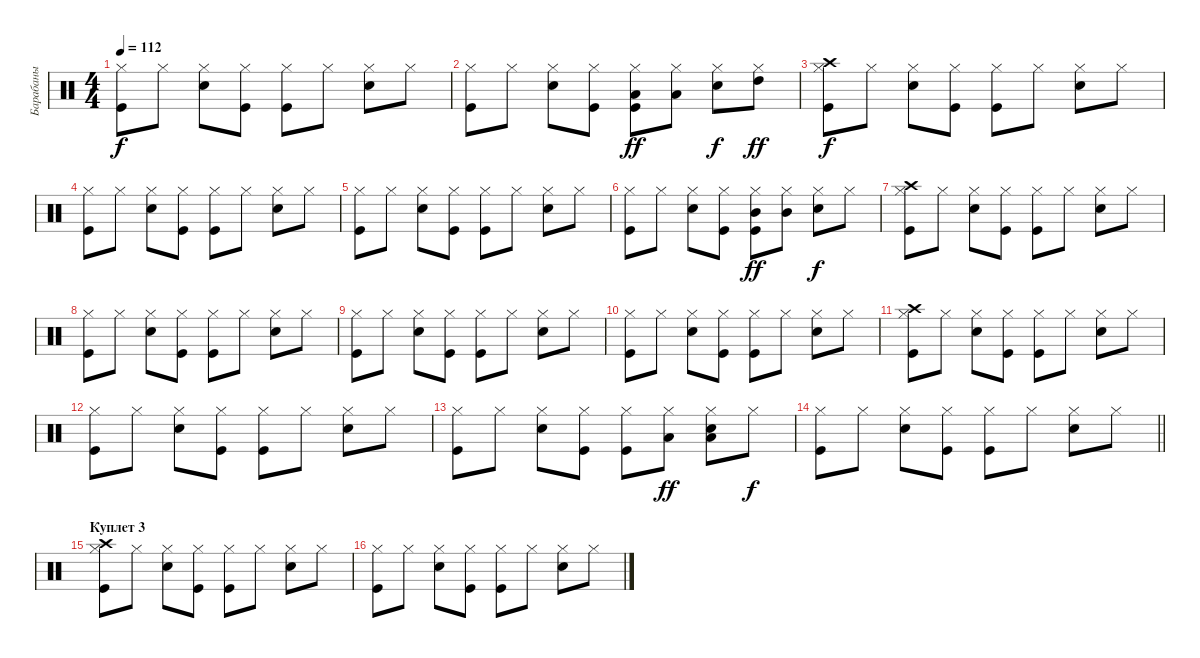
\track ("Барабаны" "Барабаны") {instrument percussion}
\staff {score}
\articulation defaults
\ts (4 4)
\tempo 112
\clef neutral
\ks c
("Kick (hit)" "Hi-Hat (closed)").8{dy f} "Hi-Hat (closed)".8 ("Snare (hit) 2" "Hi-Hat (closed)").8 ("Kick (hit)" "Hi-Hat (closed)").8 ("Kick (hit)" "Hi-Hat (closed)").8 "Hi-Hat (closed)".8 ("Snare (hit) 2" "Hi-Hat (closed)").8 "Hi-Hat (closed)".8 |
("Kick (hit)" "Hi-Hat (closed)").8 "Hi-Hat (closed)".8 ("Snare (hit) 2" "Hi-Hat (closed)").8 ("Kick (hit)" "Hi-Hat (closed)").8 ("Kick (hit)" "Hi-Hat (closed)" "Low Floor Tom (hit)").8{dy ff} ("Hi-Hat (closed)" "Low Floor Tom (hit)").8 ("Snare (hit) 2" "Hi-Hat (closed)").8{dy f} ("Hi-Hat (closed)" "High Tom (hit)").8{dy ff} |
("Kick (hit)" "Hi-Hat (closed)" "Crash high (hit)").8{dy f} "Hi-Hat (closed)".8 ("Snare (hit) 2" "Hi-Hat (closed)").8 ("Kick (hit)" "Hi-Hat (closed)").8 ("Kick (hit)" "Hi-Hat (closed)").8 "Hi-Hat (closed)".8 ("Snare (hit) 2" "Hi-Hat (closed)").8 "Hi-Hat (closed)".8 |
("Kick (hit)" "Hi-Hat (closed)").8 "Hi-Hat (closed)".8 ("Snare (hit) 2" "Hi-Hat (closed)").8 ("Kick (hit)" "Hi-Hat (closed)").8 ("Kick (hit)" "Hi-Hat (closed)").8 "Hi-Hat (closed)".8 ("Snare (hit) 2" "Hi-Hat (closed)").8 "Hi-Hat (closed)".8 |
("Kick (hit)" "Hi-Hat (closed)").8 "Hi-Hat (closed)".8 ("Snare (hit) 2" "Hi-Hat (closed)").8 ("Kick (hit)" "Hi-Hat (closed)").8 ("Kick (hit)" "Hi-Hat (closed)").8 "Hi-Hat (closed)".8 ("Snare (hit) 2" "Hi-Hat (closed)").8 "Hi-Hat (closed)".8 |
("Kick (hit)" "Hi-Hat (closed)").8 "Hi-Hat (closed)".8 ("Snare (hit) 2" "Hi-Hat (closed)").8 ("Kick (hit)" "Hi-Hat (closed)").8 ("Kick (hit)" "Hi-Hat (closed)" "Mid Tom (hit)").8{dy ff} ("Hi-Hat (closed)" "Mid Tom (hit)").8 ("Snare (hit) 2" "Hi-Hat (closed)").8{dy f} "Hi-Hat (closed)".8 |
("Kick (hit)" "Hi-Hat (closed)" "Crash high (hit)").8 "Hi-Hat (closed)".8 ("Snare (hit) 2" "Hi-Hat (closed)").8 ("Kick (hit)" "Hi-Hat (closed)").8 ("Kick (hit)" "Hi-Hat (closed)").8 "Hi-Hat (closed)".8 ("Snare (hit) 2" "Hi-Hat (closed)").8 "Hi-Hat (closed)".8 |
("Kick (hit)" "Hi-Hat (closed)").8 "Hi-Hat (closed)".8 ("Snare (hit) 2" "Hi-Hat (closed)").8 ("Kick (hit)" "Hi-Hat (closed)").8 ("Kick (hit)" "Hi-Hat (closed)").8 "Hi-Hat (closed)".8 ("Snare (hit) 2" "Hi-Hat (closed)").8 "Hi-Hat (closed)".8 |
("Kick (hit)" "Hi-Hat (closed)").8 "Hi-Hat (closed)".8 ("Snare (hit) 2" "Hi-Hat (closed)").8 ("Kick (hit)" "Hi-Hat (closed)").8 ("Kick (hit)" "Hi-Hat (closed)").8 "Hi-Hat (closed)".8 ("Snare (hit) 2" "Hi-Hat (closed)").8 "Hi-Hat (closed)".8 |
("Kick (hit)" "Hi-Hat (closed)").8 "Hi-Hat (closed)".8 ("Snare (hit) 2" "Hi-Hat (closed)").8 ("Kick (hit)" "Hi-Hat (closed)").8 ("Kick (hit)" "Hi-Hat (closed)").8 "Hi-Hat (closed)".8 ("Snare (hit) 2" "Hi-Hat (closed)").8 "Hi-Hat (closed)".8 |
("Kick (hit)" "Hi-Hat (closed)" "Crash high (hit)").8 "Hi-Hat (closed)".8 ("Snare (hit) 2" "Hi-Hat (closed)").8 ("Kick (hit)" "Hi-Hat (closed)").8 ("Kick (hit)" "Hi-Hat (closed)").8 "Hi-Hat (closed)".8 ("Snare (hit) 2" "Hi-Hat (closed)").8 "Hi-Hat (closed)".8 |
("Kick (hit)" "Hi-Hat (closed)").8 "Hi-Hat (closed)".8 ("Snare (hit) 2" "Hi-Hat (closed)").8 ("Kick (hit)" "Hi-Hat (closed)").8 ("Kick (hit)" "Hi-Hat (closed)").8 "Hi-Hat (closed)".8 ("Snare (hit) 2" "Hi-Hat (closed)").8 "Hi-Hat (closed)".8 |
("Kick (hit)" "Hi-Hat (closed)").8 "Hi-Hat (closed)".8 ("Snare (hit) 2" "Hi-Hat (closed)").8 ("Kick (hit)" "Hi-Hat (closed)").8 ("Kick (hit)" "Hi-Hat (closed)").8 ("Hi-Hat (closed)" "Low Floor Tom (hit)").8{dy ff} ("Snare (hit) 2" "Hi-Hat (closed)" "Low Floor Tom (hit)").8 "Hi-Hat (closed)".8{dy f} |
\barLineRight lightlight
("Kick (hit)" "Hi-Hat (closed)").8 "Hi-Hat (closed)".8 ("Snare (hit) 2" "Hi-Hat (closed)").8 ("Kick (hit)" "Hi-Hat (closed)").8 ("Kick (hit)" "Hi-Hat (closed)").8 "Hi-Hat (closed)".8 ("Snare (hit) 2" "Hi-Hat (closed)").8 "Hi-Hat (closed)".8 |
\section ("" "Куплет 3")
("Kick (hit)" "Hi-Hat (closed)" "Crash high (hit)").8 "Hi-Hat (closed)".8 ("Snare (hit) 2" "Hi-Hat (closed)").8 ("Kick (hit)" "Hi-Hat (closed)").8 ("Kick (hit)" "Hi-Hat (closed)").8 "Hi-Hat (closed)".8 ("Snare (hit) 2" "Hi-Hat (closed)").8 "Hi-Hat (closed)".8 |
("Kick (hit)" "Hi-Hat (closed)").8 "Hi-Hat (closed)".8 ("Snare (hit) 2" "Hi-Hat (closed)").8 ("Kick (hit)" "Hi-Hat (closed)").8 ("Kick (hit)" "Hi-Hat (closed)").8 "Hi-Hat (closed)".8 ("Snare (hit) 2" "Hi-Hat (closed)").8 "Hi-Hat (closed)".8
